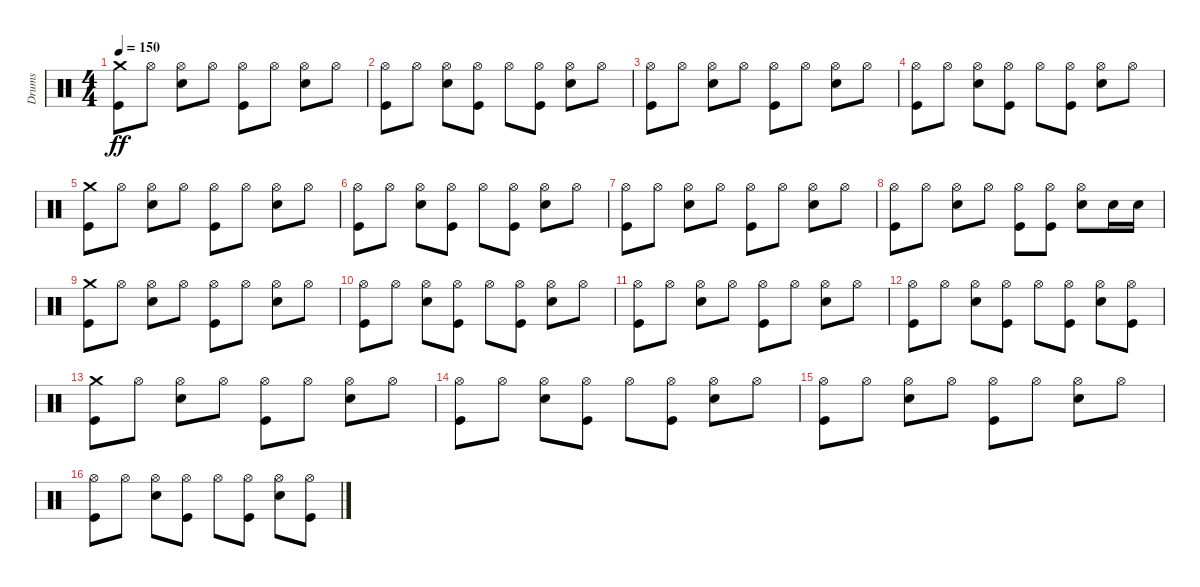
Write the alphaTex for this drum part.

\track ("Drums" "Drums") {instrument percussion}
\staff {score}
\articulation defaults
\ts (4 4)
\tempo 150
\clef neutral
\ks c
("Kick (hit)" "Crash medium (hit)").8{dy ff} "Hi-Hat (open)".8 ("Electric Snare (hit)" "Hi-Hat (open)").8 "Hi-Hat (open)".8 ("Kick (hit)" "Hi-Hat (open)").8 "Hi-Hat (open)".8 ("Electric Snare (hit)" "Hi-Hat (open)").8 "Hi-Hat (open)".8 |
("Kick (hit)" "Hi-Hat (open)").8 "Hi-Hat (open)".8 ("Electric Snare (hit)" "Hi-Hat (open)").8 ("Kick (hit)" "Hi-Hat (open)").8 "Hi-Hat (open)".8 ("Kick (hit)" "Hi-Hat (open)").8 ("Electric Snare (hit)" "Hi-Hat (open)").8 "Hi-Hat (open)".8 |
("Kick (hit)" "Hi-Hat (open)").8 "Hi-Hat (open)".8 ("Electric Snare (hit)" "Hi-Hat (open)").8 "Hi-Hat (open)".8 ("Kick (hit)" "Hi-Hat (open)").8 "Hi-Hat (open)".8 ("Electric Snare (hit)" "Hi-Hat (open)").8 "Hi-Hat (open)".8 |
("Kick (hit)" "Hi-Hat (open)").8 "Hi-Hat (open)".8 ("Electric Snare (hit)" "Hi-Hat (open)").8 ("Kick (hit)" "Hi-Hat (open)").8 "Hi-Hat (open)".8 ("Kick (hit)" "Hi-Hat (open)").8 ("Electric Snare (hit)" "Hi-Hat (open)").8 "Hi-Hat (open)".8 |
("Kick (hit)" "Crash medium (hit)").8 "Hi-Hat (open)".8 ("Electric Snare (hit)" "Hi-Hat (open)").8 "Hi-Hat (open)".8 ("Kick (hit)" "Hi-Hat (open)").8 "Hi-Hat (open)".8 ("Electric Snare (hit)" "Hi-Hat (open)").8 "Hi-Hat (open)".8 |
("Kick (hit)" "Hi-Hat (open)").8 "Hi-Hat (open)".8 ("Electric Snare (hit)" "Hi-Hat (open)").8 ("Kick (hit)" "Hi-Hat (open)").8 "Hi-Hat (open)".8 ("Kick (hit)" "Hi-Hat (open)").8 ("Electric Snare (hit)" "Hi-Hat (open)").8 "Hi-Hat (open)".8 |
("Kick (hit)" "Hi-Hat (open)").8 "Hi-Hat (open)".8 ("Electric Snare (hit)" "Hi-Hat (open)").8 "Hi-Hat (open)".8 ("Kick (hit)" "Hi-Hat (open)").8 "Hi-Hat (open)".8 ("Electric Snare (hit)" "Hi-Hat (open)").8 "Hi-Hat (open)".8 |
("Kick (hit)" "Hi-Hat (open)").8 "Hi-Hat (open)".8 ("Electric Snare (hit)" "Hi-Hat (open)").8 "Hi-Hat (open)".8 ("Kick (hit)" "Hi-Hat (open)").8 ("Kick (hit)" "Hi-Hat (open)").8 ("Electric Snare (hit)" "Hi-Hat (open)").8 "Electric Snare (hit)".16 "Electric Snare (hit)".16 |
("Kick (hit)" "Crash medium (hit)").8 "Hi-Hat (open)".8 ("Electric Snare (hit)" "Hi-Hat (open)").8 "Hi-Hat (open)".8 ("Kick (hit)" "Hi-Hat (open)").8 "Hi-Hat (open)".8 ("Electric Snare (hit)" "Hi-Hat (open)").8 "Hi-Hat (open)".8 |
("Kick (hit)" "Hi-Hat (open)").8 "Hi-Hat (open)".8 ("Electric Snare (hit)" "Hi-Hat (open)").8 ("Kick (hit)" "Hi-Hat (open)").8 "Hi-Hat (open)".8 ("Kick (hit)" "Hi-Hat (open)").8 ("Electric Snare (hit)" "Hi-Hat (open)").8 "Hi-Hat (open)".8 |
("Kick (hit)" "Hi-Hat (open)").8 "Hi-Hat (open)".8 ("Electric Snare (hit)" "Hi-Hat (open)").8 "Hi-Hat (open)".8 ("Kick (hit)" "Hi-Hat (open)").8 "Hi-Hat (open)".8 ("Electric Snare (hit)" "Hi-Hat (open)").8 "Hi-Hat (open)".8 |
("Kick (hit)" "Hi-Hat (open)").8 "Hi-Hat (open)".8 ("Electric Snare (hit)" "Hi-Hat (open)").8 ("Kick (hit)" "Hi-Hat (open)").8 "Hi-Hat (open)".8 ("Kick (hit)" "Hi-Hat (open)").8 ("Electric Snare (hit)" "Hi-Hat (open)").8 ("Kick (hit)" "Hi-Hat (open)").8 |
("Kick (hit)" "Crash medium (hit)").8 "Hi-Hat (open)".8 ("Electric Snare (hit)" "Hi-Hat (open)").8 "Hi-Hat (open)".8 ("Kick (hit)" "Hi-Hat (open)").8 "Hi-Hat (open)".8 ("Electric Snare (hit)" "Hi-Hat (open)").8 "Hi-Hat (open)".8 |
("Kick (hit)" "Hi-Hat (open)").8 "Hi-Hat (open)".8 ("Electric Snare (hit)" "Hi-Hat (open)").8 ("Kick (hit)" "Hi-Hat (open)").8 "Hi-Hat (open)".8 ("Kick (hit)" "Hi-Hat (open)").8 ("Electric Snare (hit)" "Hi-Hat (open)").8 "Hi-Hat (open)".8 |
("Kick (hit)" "Hi-Hat (open)").8 "Hi-Hat (open)".8 ("Electric Snare (hit)" "Hi-Hat (open)").8 "Hi-Hat (open)".8 ("Kick (hit)" "Hi-Hat (open)").8 "Hi-Hat (open)".8 ("Electric Snare (hit)" "Hi-Hat (open)").8 "Hi-Hat (open)".8 |
("Kick (hit)" "Hi-Hat (open)").8 "Hi-Hat (open)".8 ("Electric Snare (hit)" "Hi-Hat (open)").8 ("Kick (hit)" "Hi-Hat (open)").8 "Hi-Hat (open)".8 ("Kick (hit)" "Hi-Hat (open)").8 ("Electric Snare (hit)" "Hi-Hat (open)").8 ("Kick (hit)" "Hi-Hat (open)").8
